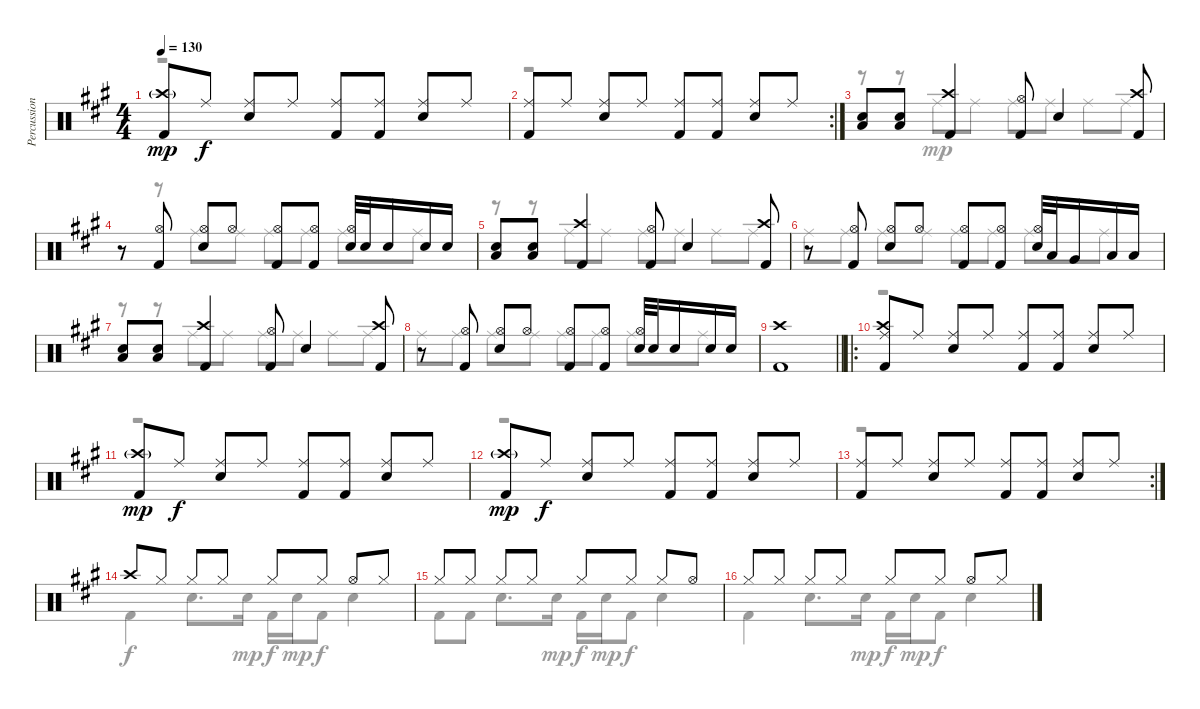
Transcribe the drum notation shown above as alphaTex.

\track ("Percussion" "Percussion") {instrument percussion}
\staff {score}
\articulation defaults
\voice
\ts (4 4)
\tempo 130
\clef neutral
\ks a
("Crash high (hit)"{g} "Kick (hit) 2").8{dy mp} "Ride (middle)".8{dy f} ("Ride (middle)" "Electric Snare (hit)").8 "Ride (middle)".8 ("Ride (middle)" "Kick (hit) 2").8 ("Ride (middle)" "Kick (hit) 2").8 ("Ride (middle)" "Electric Snare (hit)").8 "Ride (middle)".8 |
\rc 2
("Ride (middle)" "Kick (hit) 2").8 "Ride (middle)".8 ("Ride (middle)" "Electric Snare (hit)").8 "Ride (middle)".8 ("Ride (middle)" "Kick (hit) 2").8 ("Ride (middle)" "Kick (hit) 2").8 ("Ride (middle)" "Electric Snare (hit)").8 "Ride (middle)".8 |
("Electric Snare (hit)" "Low Floor Tom (hit)").8 ("Electric Snare (hit)" "Low Floor Tom (hit)").8 ("Crash high (hit)" "Kick (hit) 2").4 ("Hi-Hat (open)" "Kick (hit) 2").8 "Electric Snare (hit)".4 ("Crash high (hit)" "Kick (hit) 2").8 |
r.8 ("Hi-Hat (open)" "Kick (hit) 2").8 ("Hi-Hat (open)" "Electric Snare (hit)").8 "Hi-Hat (open)".8 ("Hi-Hat (open)" "Kick (hit) 2").8 ("Hi-Hat (open)" "Kick (hit) 2").8 ("Hi-Hat (open)" "Electric Snare (hit)").32 "Electric Snare (hit)".32 "Electric Snare (hit)".16 "Electric Snare (hit)".16 "Electric Snare (hit)".16 |
("Electric Snare (hit)" "Low Floor Tom (hit)").8 ("Electric Snare (hit)" "Low Floor Tom (hit)").8 ("Crash high (hit)" "Kick (hit) 2").4 ("Hi-Hat (open)" "Kick (hit) 2").8 "Electric Snare (hit)".4 ("Crash high (hit)" "Kick (hit) 2").8 |
r.8 ("Hi-Hat (open)" "Kick (hit) 2").8 ("Hi-Hat (open)" "Electric Snare (hit)").8 "Hi-Hat (open)".8 ("Hi-Hat (open)" "Kick (hit) 2").8 ("Hi-Hat (open)" "Kick (hit) 2").8 ("Hi-Hat (open)" "Electric Snare (hit)").32 "Low Tom (hit)".32 "Very Low Tom (hit)".16 "Low Floor Tom (hit)".16 "Low Floor Tom (hit)".16 |
("Electric Snare (hit)" "Low Floor Tom (hit)").8 ("Electric Snare (hit)" "Low Floor Tom (hit)").8 ("Crash high (hit)" "Kick (hit) 2").4 ("Hi-Hat (open)" "Kick (hit) 2").8 "Electric Snare (hit)".4 ("Crash high (hit)" "Kick (hit) 2").8 |
r.8 ("Hi-Hat (open)" "Kick (hit) 2").8 ("Hi-Hat (open)" "Electric Snare (hit)").8 "Hi-Hat (open)".8 ("Hi-Hat (open)" "Kick (hit) 2").8 ("Hi-Hat (open)" "Kick (hit) 2").8 ("Hi-Hat (open)" "Electric Snare (hit)").32 "Electric Snare (hit)".32 "Electric Snare (hit)".16 "Electric Snare (hit)".16 "Electric Snare (hit)".16 |
\barLineRight lightlight
("Crash high (hit)" "Kick (hit) 2").1 |
\ro
("Crash high (hit)" "Ride (middle)" "Kick (hit) 2").8 "Ride (middle)".8 ("Ride (middle)" "Electric Snare (hit)").8 "Ride (middle)".8 ("Ride (middle)" "Kick (hit) 2").8 ("Ride (middle)" "Kick (hit) 2").8 ("Ride (middle)" "Electric Snare (hit)").8 "Ride (middle)".8 |
("Crash high (hit)"{g} "Kick (hit) 2").8{dy mp} "Ride (middle)".8{dy f} ("Ride (middle)" "Electric Snare (hit)").8 "Ride (middle)".8 ("Ride (middle)" "Kick (hit) 2").8 ("Ride (middle)" "Kick (hit) 2").8 ("Ride (middle)" "Electric Snare (hit)").8 "Ride (middle)".8 |
("Crash high (hit)"{g} "Kick (hit) 2").8{dy mp} "Ride (middle)".8{dy f} ("Ride (middle)" "Electric Snare (hit)").8 "Ride (middle)".8 ("Ride (middle)" "Kick (hit) 2").8 ("Ride (middle)" "Kick (hit) 2").8 ("Ride (middle)" "Electric Snare (hit)").8 "Ride (middle)".8 |
\rc 2
("Ride (middle)" "Kick (hit) 2").8 "Ride (middle)".8 ("Ride (middle)" "Electric Snare (hit)").8 "Ride (middle)".8 ("Ride (middle)" "Kick (hit) 2").8 ("Ride (middle)" "Kick (hit) 2").8 ("Ride (middle)" "Electric Snare (hit)").8 "Ride (middle)".8 |
"Crash high (hit)".8 "Hi-Hat (closed)".8 "Hi-Hat (closed)".8 "Hi-Hat (closed)".8 "Hi-Hat (closed)".8 "Hi-Hat (closed)".8 "Hi-Hat (open)".8 "Hi-Hat (closed)".8 |
"Hi-Hat (closed)".8 "Hi-Hat (closed)".8 "Hi-Hat (closed)".8 "Hi-Hat (closed)".8 "Hi-Hat (closed)".8 "Hi-Hat (closed)".8 "Hi-Hat (closed)".8 "Hi-Hat (open)".8 |
"Hi-Hat (closed)".8 "Hi-Hat (closed)".8 "Hi-Hat (closed)".8 "Hi-Hat (closed)".8 "Hi-Hat (closed)".8 "Hi-Hat (closed)".8 "Hi-Hat (open)".8 "Hi-Hat (closed)".8
\voice
\clef neutral
\ottava regular
\simile none
\ks a
r.1{dy f} |
r.1 |
r.8 r.8 "Ride (middle)".8{dy mp} "Ride (middle)".8 "Ride (middle)".8 "Ride (middle)".8 "Ride (middle)".8 "Ride (middle)".8 |
r.8 r.8 "Ride (middle)".8 "Ride (middle)".8 "Ride (middle)".8 "Ride (middle)".8 "Ride (middle)".8 "Ride (middle)".8 |
r.8 r.8 "Ride (middle)".8 "Ride (middle)".8 "Ride (middle)".8 "Ride (middle)".8 "Ride (middle)".8 "Ride (middle)".8 |
"Ride (middle)".8 "Ride (middle)".8 "Ride (middle)".8 "Ride (middle)".8 "Ride (middle)".8 "Ride (middle)".8 "Ride (middle)".8 "Ride (middle)".8 |
r.8 r.8 "Ride (middle)".8 "Ride (middle)".8 "Ride (middle)".8 "Ride (middle)".8 "Ride (middle)".8 "Ride (middle)".8 |
"Ride (middle)".8 "Ride (middle)".8 "Ride (middle)".8 "Ride (middle)".8 "Ride (middle)".8 "Ride (middle)".8 "Ride (middle)".8 "Ride (middle)".8 |
\barLineRight lightlight
|
r.1 |
r.1 |
r.1 |
r.1 |
"Kick (hit) 2".4{dy f} "Electric Snare (hit)".8{d} "Electric Snare (hit)".16{dy mp} "Kick (hit) 2".16{dy f} "Electric Snare (hit)".16{dy mp} "Kick (hit) 2".8{dy f} "Electric Snare (hit)".4 |
"Kick (hit) 2".8 "Kick (hit) 2".8 "Electric Snare (hit)".8{d} "Electric Snare (hit)".16{dy mp} "Kick (hit) 2".16{dy f} "Electric Snare (hit)".16{dy mp} "Kick (hit) 2".8{dy f} "Electric Snare (hit)".4 |
"Kick (hit) 2".4 "Electric Snare (hit)".8{d} "Electric Snare (hit)".16{dy mp} "Kick (hit) 2".16{dy f} "Electric Snare (hit)".16{dy mp} "Kick (hit) 2".8{dy f} "Electric Snare (hit)".4
